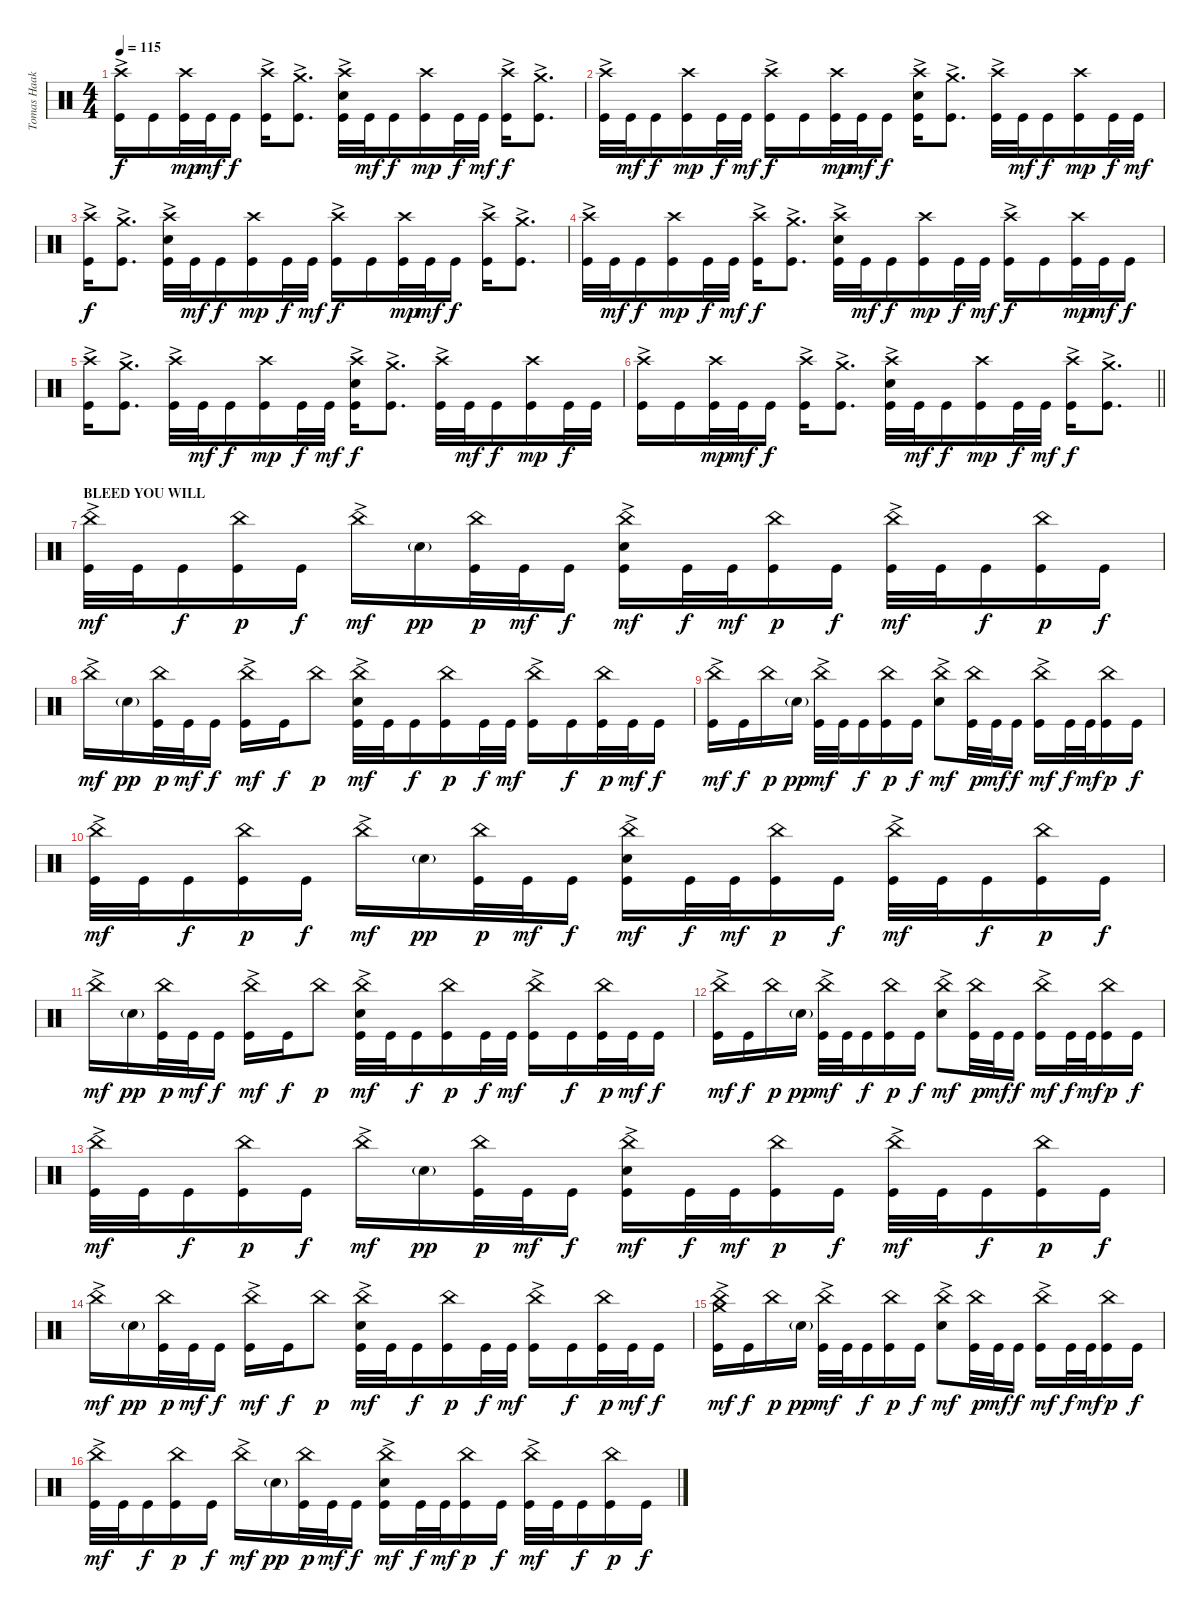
\track ("Tomas Haake (Drums)" "Tomas Haak") {instrument percussion}
\staff {score}
\articulation defaults
\ts (4 4)
\tempo 115
\clef neutral
\ks c
("Crash high (hit)"{ac} "Kick (hit)").16{dy f} "Kick (hit)".16 ("Crash high (hit)" "Kick (hit)").32{dy mp} "Kick (hit)".32{dy mf} "Kick (hit)".16{dy f} ("Crash high (hit)"{ac} "Kick (hit)").16 ("Crash medium (hit)"{ac} "Kick (hit)").8{d} ("Crash high (hit)"{ac} "Electric Snare (hit)" "Kick (hit)").32 "Kick (hit)".32{dy mf} "Kick (hit)".16{dy f} ("Crash high (hit)" "Kick (hit)").16{dy mp} "Kick (hit)".32{dy f} "Kick (hit)".32{dy mf} ("Crash high (hit)"{ac} "Kick (hit)").16{dy f} ("Crash medium (hit)"{ac} "Kick (hit)").8{d} |
("Crash high (hit)"{ac} "Kick (hit)").32 "Kick (hit)".32{dy mf} "Kick (hit)".16{dy f} ("Crash high (hit)" "Kick (hit)").16{dy mp} "Kick (hit)".32{dy f} "Kick (hit)".32{dy mf} ("Crash high (hit)"{ac} "Kick (hit)").16{dy f} "Kick (hit)".16 ("Crash high (hit)" "Kick (hit)").32{dy mp} "Kick (hit)".32{dy mf} "Kick (hit)".16{dy f} ("Crash high (hit)"{ac} "Electric Snare (hit)" "Kick (hit)").16 ("Crash medium (hit)"{ac} "Kick (hit)").8{d} ("Crash high (hit)"{ac} "Kick (hit)").32 "Kick (hit)".32{dy mf} "Kick (hit)".16{dy f} ("Crash high (hit)" "Kick (hit)").16{dy mp} "Kick (hit)".32{dy f} "Kick (hit)".32{dy mf} |
("Crash high (hit)"{ac} "Kick (hit)").16{dy f} ("Crash medium (hit)"{ac} "Kick (hit)").8{d} ("Crash high (hit)"{ac} "Electric Snare (hit)" "Kick (hit)").32 "Kick (hit)".32{dy mf} "Kick (hit)".16{dy f} ("Crash high (hit)" "Kick (hit)").16{dy mp} "Kick (hit)".32{dy f} "Kick (hit)".32{dy mf} ("Crash high (hit)"{ac} "Kick (hit)").16{dy f} "Kick (hit)".16 ("Crash high (hit)" "Kick (hit)").32{dy mp} "Kick (hit)".32{dy mf} "Kick (hit)".16{dy f} ("Crash high (hit)"{ac} "Kick (hit)").16 ("Crash medium (hit)"{ac} "Kick (hit)").8{d} |
("Crash high (hit)"{ac} "Kick (hit)").32 "Kick (hit)".32{dy mf} "Kick (hit)".16{dy f} ("Crash high (hit)" "Kick (hit)").16{dy mp} "Kick (hit)".32{dy f} "Kick (hit)".32{dy mf} ("Crash high (hit)"{ac} "Kick (hit)").16{dy f} ("Crash medium (hit)"{ac} "Kick (hit)").8{d} ("Crash high (hit)"{ac} "Electric Snare (hit)" "Kick (hit)").32 "Kick (hit)".32{dy mf} "Kick (hit)".16{dy f} ("Crash high (hit)" "Kick (hit)").16{dy mp} "Kick (hit)".32{dy f} "Kick (hit)".32{dy mf} ("Crash high (hit)"{ac} "Kick (hit)").16{dy f} "Kick (hit)".16 ("Crash high (hit)" "Kick (hit)").32{dy mp} "Kick (hit)".32{dy mf} "Kick (hit)".16{dy f} |
("Crash high (hit)"{ac} "Kick (hit)").16 ("Crash medium (hit)"{ac} "Kick (hit)").8{d} ("Crash high (hit)"{ac} "Kick (hit)").32 "Kick (hit)".32{dy mf} "Kick (hit)".16{dy f} ("Crash high (hit)" "Kick (hit)").16{dy mp} "Kick (hit)".32{dy f} "Kick (hit)".32{dy mf} ("Crash high (hit)"{ac} "Electric Snare (hit)" "Kick (hit)").16{dy f} ("Crash medium (hit)"{ac} "Kick (hit)").8{d} ("Crash high (hit)"{ac} "Kick (hit)").32 "Kick (hit)".32{dy mf} "Kick (hit)".16{dy f} ("Crash high (hit)" "Kick (hit)").16{dy mp} "Kick (hit)".32{dy f} "Kick (hit)".32 |
\barLineRight lightlight
("Crash high (hit)"{ac} "Kick (hit)").16 "Kick (hit)".16 ("Crash high (hit)" "Kick (hit)").32{dy mp} "Kick (hit)".32{dy mf} "Kick (hit)".16{dy f} ("Crash high (hit)"{ac} "Kick (hit)").16 ("Crash medium (hit)"{ac} "Kick (hit)").8{d} ("Crash high (hit)"{ac} "Electric Snare (hit)" "Kick (hit)").32 "Kick (hit)".32{dy mf} "Kick (hit)".16{dy f} ("Crash high (hit)" "Kick (hit)").16{dy mp} "Kick (hit)".32{dy f} "Kick (hit)".32{dy mf} ("Crash high (hit)"{ac} "Kick (hit)").16{dy f} ("Crash medium (hit)"{ac} "Kick (hit)").8{d} |
\section ("" "BLEED YOU WILL")
("China (hit)"{ac} "Kick (hit)").32{dy mf} "Kick (hit)".32 "Kick (hit)".16{dy f} ("China (hit)" "Kick (hit)").16{dy p} "Kick (hit)".16{dy f} "China (hit)"{ac}.16{dy mf} "Electric Snare (hit)"{g}.16{dy pp} ("China (hit)" "Kick (hit)").32{dy p} "Kick (hit)".32{dy mf} "Kick (hit)".16{dy f} ("China (hit)"{ac} "Electric Snare (hit)" "Kick (hit)").16{dy mf} "Kick (hit)".32{dy f} "Kick (hit)".32{dy mf} ("China (hit)" "Kick (hit)").16{dy p} "Kick (hit)".16{dy f} ("China (hit)"{ac} "Kick (hit)").32{dy mf} "Kick (hit)".32 "Kick (hit)".16{dy f} ("China (hit)" "Kick (hit)").16{dy p} "Kick (hit)".16{dy f} |
"China (hit)"{ac}.16{dy mf} "Electric Snare (hit)"{g}.16{dy pp} ("China (hit)" "Kick (hit)").32{dy p} "Kick (hit)".32{dy mf} "Kick (hit)".16{dy f} ("China (hit)"{ac} "Kick (hit)").16{dy mf} "Kick (hit)".16{dy f} "China (hit)".8{dy p} ("China (hit)"{ac} "Electric Snare (hit)" "Kick (hit)").32{dy mf} "Kick (hit)".32 "Kick (hit)".16{dy f} ("China (hit)" "Kick (hit)").16{dy p} "Kick (hit)".32{dy f} "Kick (hit)".32{dy mf} ("China (hit)"{ac} "Kick (hit)").16 "Kick (hit)".16{dy f} ("China (hit)" "Kick (hit)").32{dy p} "Kick (hit)".32{dy mf} "Kick (hit)".16{dy f} |
("China (hit)"{ac} "Kick (hit)").16{dy mf} "Kick (hit)".16{dy f} "China (hit)".16{dy p} "Electric Snare (hit)"{g}.16{dy pp} ("China (hit)"{ac} "Kick (hit)").32{dy mf} "Kick (hit)".32 "Kick (hit)".16{dy f} ("China (hit)" "Kick (hit)").16{dy p} "Kick (hit)".16{dy f} ("China (hit)"{ac} "Electric Snare (hit)").8{dy mf} ("China (hit)" "Kick (hit)").32{dy p} "Kick (hit)".32{dy mf} "Kick (hit)".16{dy f} ("China (hit)"{ac} "Kick (hit)").16{dy mf} "Kick (hit)".32{dy f} "Kick (hit)".32{dy mf} ("China (hit)" "Kick (hit)").16{dy p} "Kick (hit)".16{dy f} |
("China (hit)"{ac} "Kick (hit)").32{dy mf} "Kick (hit)".32 "Kick (hit)".16{dy f} ("China (hit)" "Kick (hit)").16{dy p} "Kick (hit)".16{dy f} "China (hit)"{ac}.16{dy mf} "Electric Snare (hit)"{g}.16{dy pp} ("China (hit)" "Kick (hit)").32{dy p} "Kick (hit)".32{dy mf} "Kick (hit)".16{dy f} ("China (hit)"{ac} "Electric Snare (hit)" "Kick (hit)").16{dy mf} "Kick (hit)".32{dy f} "Kick (hit)".32{dy mf} ("China (hit)" "Kick (hit)").16{dy p} "Kick (hit)".16{dy f} ("China (hit)"{ac} "Kick (hit)").32{dy mf} "Kick (hit)".32 "Kick (hit)".16{dy f} ("China (hit)" "Kick (hit)").16{dy p} "Kick (hit)".16{dy f} |
"China (hit)"{ac}.16{dy mf} "Electric Snare (hit)"{g}.16{dy pp} ("China (hit)" "Kick (hit)").32{dy p} "Kick (hit)".32{dy mf} "Kick (hit)".16{dy f} ("China (hit)"{ac} "Kick (hit)").16{dy mf} "Kick (hit)".16{dy f} "China (hit)".8{dy p} ("China (hit)"{ac} "Electric Snare (hit)" "Kick (hit)").32{dy mf} "Kick (hit)".32 "Kick (hit)".16{dy f} ("China (hit)" "Kick (hit)").16{dy p} "Kick (hit)".32{dy f} "Kick (hit)".32{dy mf} ("China (hit)"{ac} "Kick (hit)").16 "Kick (hit)".16{dy f} ("China (hit)" "Kick (hit)").32{dy p} "Kick (hit)".32{dy mf} "Kick (hit)".16{dy f} |
("China (hit)"{ac} "Kick (hit)").16{dy mf} "Kick (hit)".16{dy f} "China (hit)".16{dy p} "Electric Snare (hit)"{g}.16{dy pp} ("China (hit)"{ac} "Kick (hit)").32{dy mf} "Kick (hit)".32 "Kick (hit)".16{dy f} ("China (hit)" "Kick (hit)").16{dy p} "Kick (hit)".16{dy f} ("China (hit)"{ac} "Electric Snare (hit)").8{dy mf} ("China (hit)" "Kick (hit)").32{dy p} "Kick (hit)".32{dy mf} "Kick (hit)".16{dy f} ("China (hit)"{ac} "Kick (hit)").16{dy mf} "Kick (hit)".32{dy f} "Kick (hit)".32{dy mf} ("China (hit)" "Kick (hit)").16{dy p} "Kick (hit)".16{dy f} |
("China (hit)"{ac} "Kick (hit)").32{dy mf} "Kick (hit)".32 "Kick (hit)".16{dy f} ("China (hit)" "Kick (hit)").16{dy p} "Kick (hit)".16{dy f} "China (hit)"{ac}.16{dy mf} "Electric Snare (hit)"{g}.16{dy pp} ("China (hit)" "Kick (hit)").32{dy p} "Kick (hit)".32{dy mf} "Kick (hit)".16{dy f} ("China (hit)"{ac} "Electric Snare (hit)" "Kick (hit)").16{dy mf} "Kick (hit)".32{dy f} "Kick (hit)".32{dy mf} ("China (hit)" "Kick (hit)").16{dy p} "Kick (hit)".16{dy f} ("China (hit)"{ac} "Kick (hit)").32{dy mf} "Kick (hit)".32 "Kick (hit)".16{dy f} ("China (hit)" "Kick (hit)").16{dy p} "Kick (hit)".16{dy f} |
"China (hit)"{ac}.16{dy mf} "Electric Snare (hit)"{g}.16{dy pp} ("China (hit)" "Kick (hit)").32{dy p} "Kick (hit)".32{dy mf} "Kick (hit)".16{dy f} ("China (hit)"{ac} "Kick (hit)").16{dy mf} "Kick (hit)".16{dy f} "China (hit)".8{dy p} ("China (hit)"{ac} "Electric Snare (hit)" "Kick (hit)").32{dy mf} "Kick (hit)".32 "Kick (hit)".16{dy f} ("China (hit)" "Kick (hit)").16{dy p} "Kick (hit)".32{dy f} "Kick (hit)".32{dy mf} ("China (hit)"{ac} "Kick (hit)").16 "Kick (hit)".16{dy f} ("China (hit)" "Kick (hit)").32{dy p} "Kick (hit)".32{dy mf} "Kick (hit)".16{dy f} |
("China (hit)"{ac} "Crash medium (hit)" "Kick (hit)").16{dy mf} "Kick (hit)".16{dy f} "China (hit)".16{dy p} "Electric Snare (hit)"{g}.16{dy pp} ("China (hit)"{ac} "Kick (hit)").32{dy mf} "Kick (hit)".32 "Kick (hit)".16{dy f} ("China (hit)" "Kick (hit)").16{dy p} "Kick (hit)".16{dy f} ("China (hit)"{ac} "Electric Snare (hit)").8{dy mf} ("China (hit)" "Kick (hit)").32{dy p} "Kick (hit)".32{dy mf} "Kick (hit)".16{dy f} ("China (hit)"{ac} "Kick (hit)").16{dy mf} "Kick (hit)".32{dy f} "Kick (hit)".32{dy mf} ("China (hit)" "Kick (hit)").16{dy p} "Kick (hit)".16{dy f} |
("China (hit)"{ac} "Kick (hit)").32{dy mf} "Kick (hit)".32 "Kick (hit)".16{dy f} ("China (hit)" "Kick (hit)").16{dy p} "Kick (hit)".16{dy f} "China (hit)"{ac}.16{dy mf} "Electric Snare (hit)"{g}.16{dy pp} ("China (hit)" "Kick (hit)").32{dy p} "Kick (hit)".32{dy mf} "Kick (hit)".16{dy f} ("China (hit)"{ac} "Electric Snare (hit)" "Kick (hit)").16{dy mf} "Kick (hit)".32{dy f} "Kick (hit)".32{dy mf} ("China (hit)" "Kick (hit)").16{dy p} "Kick (hit)".16{dy f} ("China (hit)"{ac} "Kick (hit)").32{dy mf} "Kick (hit)".32 "Kick (hit)".16{dy f} ("China (hit)" "Kick (hit)").16{dy p} "Kick (hit)".16{dy f}
